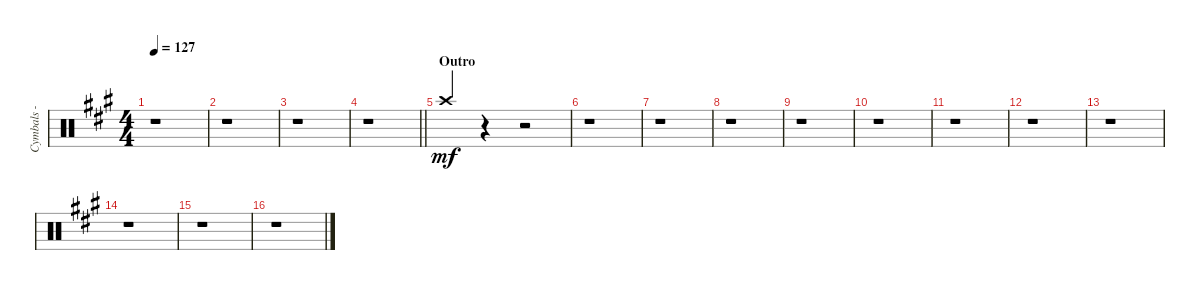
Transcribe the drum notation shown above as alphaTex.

\track ("Cymbals - crash" "Cymbals - ") {instrument percussion}
\staff {score}
\articulation defaults
\ts (4 4)
\tempo 127
\clef neutral
\ks a
r.1{dy mf} |
r.1 |
r.1 |
\barLineRight lightlight
r.1 |
\section ("" "Outro")
"Crash high (hit)".4{beam Up} r.4 r.2 |
r.1 |
r.1 |
r.1 |
r.1 |
r.1 |
r.1 |
r.1 |
r.1 |
r.1 |
r.1 |
r.1
